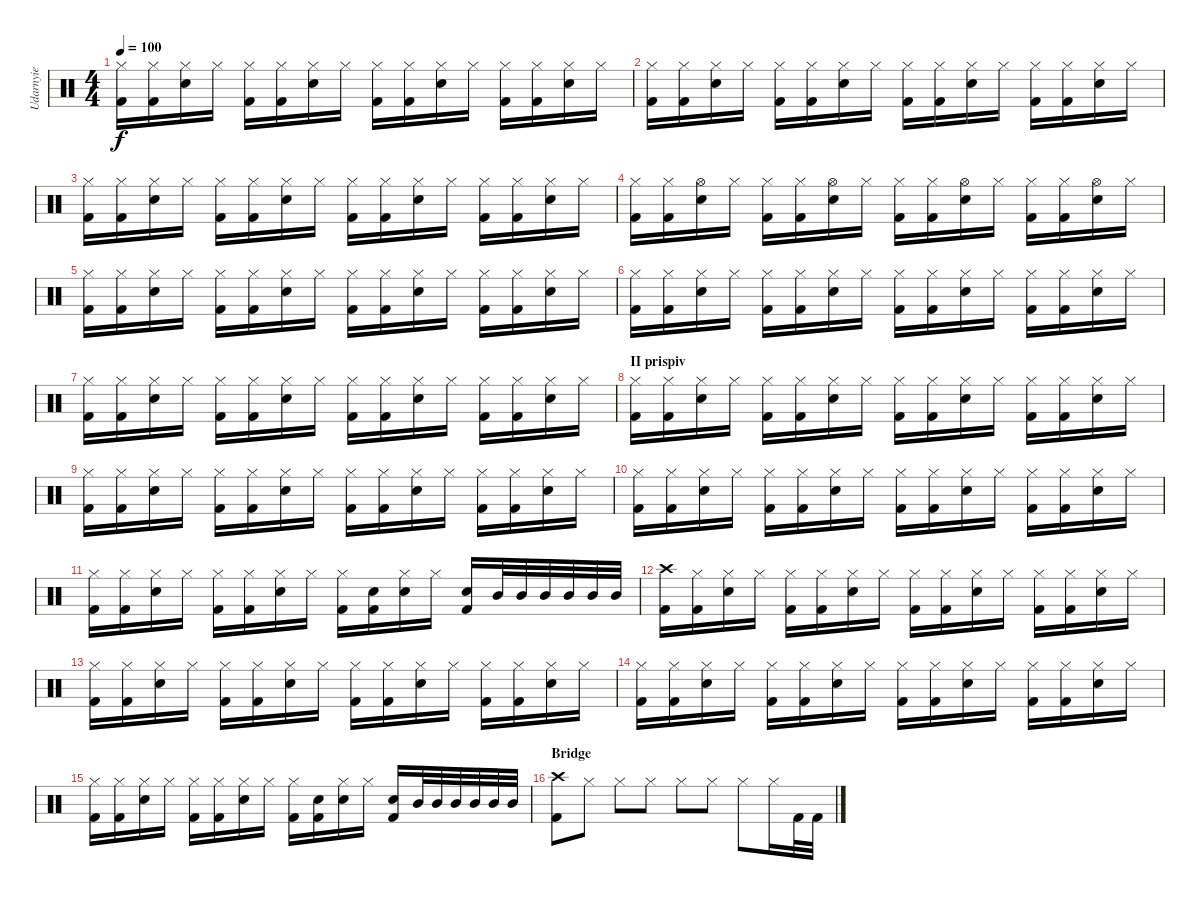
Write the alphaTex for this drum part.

\track ("Udarnyie" "Udarnyie") {instrument percussion}
\staff {score}
\articulation defaults
\ts (4 4)
\tempo 100
\clef neutral
\ks c
("Hi-Hat (closed)" "Kick (hit) 2").16{dy f} ("Hi-Hat (closed)" "Kick (hit) 2").16 ("Hi-Hat (closed)" "Snare (hit) 2").16 "Hi-Hat (closed)".16 ("Hi-Hat (closed)" "Kick (hit) 2").16 ("Hi-Hat (closed)" "Kick (hit) 2").16 ("Hi-Hat (closed)" "Snare (hit) 2").16 "Hi-Hat (closed)".16 ("Hi-Hat (closed)" "Kick (hit) 2").16 ("Hi-Hat (closed)" "Kick (hit) 2").16 ("Hi-Hat (closed)" "Snare (hit) 2").16 "Hi-Hat (closed)".16 ("Hi-Hat (closed)" "Kick (hit) 2").16 ("Hi-Hat (closed)" "Kick (hit) 2").16 ("Hi-Hat (closed)" "Snare (hit) 2").16 "Hi-Hat (closed)".16 |
("Hi-Hat (closed)" "Kick (hit) 2").16 ("Hi-Hat (closed)" "Kick (hit) 2").16 ("Hi-Hat (closed)" "Snare (hit) 2").16 "Hi-Hat (closed)".16 ("Hi-Hat (closed)" "Kick (hit) 2").16 ("Hi-Hat (closed)" "Kick (hit) 2").16 ("Hi-Hat (closed)" "Snare (hit) 2").16 "Hi-Hat (closed)".16 ("Hi-Hat (closed)" "Kick (hit) 2").16 ("Hi-Hat (closed)" "Kick (hit) 2").16 ("Hi-Hat (closed)" "Snare (hit) 2").16 "Hi-Hat (closed)".16 ("Hi-Hat (closed)" "Kick (hit) 2").16 ("Hi-Hat (closed)" "Kick (hit) 2").16 ("Hi-Hat (closed)" "Snare (hit) 2").16 "Hi-Hat (closed)".16 |
("Hi-Hat (closed)" "Kick (hit) 2").16 ("Hi-Hat (closed)" "Kick (hit) 2").16 ("Hi-Hat (closed)" "Snare (hit) 2").16 "Hi-Hat (closed)".16 ("Hi-Hat (closed)" "Kick (hit) 2").16 ("Hi-Hat (closed)" "Kick (hit) 2").16 ("Hi-Hat (closed)" "Snare (hit) 2").16 "Hi-Hat (closed)".16 ("Hi-Hat (closed)" "Kick (hit) 2").16 ("Hi-Hat (closed)" "Kick (hit) 2").16 ("Hi-Hat (closed)" "Snare (hit) 2").16 "Hi-Hat (closed)".16 ("Hi-Hat (closed)" "Kick (hit) 2").16 ("Hi-Hat (closed)" "Kick (hit) 2").16 ("Hi-Hat (closed)" "Snare (hit) 2").16 "Hi-Hat (closed)".16 |
("Hi-Hat (closed)" "Kick (hit) 2").16 ("Hi-Hat (closed)" "Kick (hit) 2").16 ("Hi-Hat (open)" "Snare (hit) 2").16 "Hi-Hat (closed)".16 ("Hi-Hat (closed)" "Kick (hit) 2").16 ("Hi-Hat (closed)" "Kick (hit) 2").16 ("Hi-Hat (open)" "Snare (hit) 2").16 "Hi-Hat (closed)".16 ("Hi-Hat (closed)" "Kick (hit) 2").16 ("Hi-Hat (closed)" "Kick (hit) 2").16 ("Hi-Hat (open)" "Snare (hit) 2").16 "Hi-Hat (closed)".16 ("Hi-Hat (closed)" "Kick (hit) 2").16 ("Hi-Hat (closed)" "Kick (hit) 2").16 ("Hi-Hat (open)" "Snare (hit) 2").16 "Hi-Hat (closed)".16 |
("Hi-Hat (closed)" "Kick (hit) 2").16 ("Hi-Hat (closed)" "Kick (hit) 2").16 ("Hi-Hat (closed)" "Snare (hit) 2").16 "Hi-Hat (closed)".16 ("Hi-Hat (closed)" "Kick (hit) 2").16 ("Hi-Hat (closed)" "Kick (hit) 2").16 ("Hi-Hat (closed)" "Snare (hit) 2").16 "Hi-Hat (closed)".16 ("Hi-Hat (closed)" "Kick (hit) 2").16 ("Hi-Hat (closed)" "Kick (hit) 2").16 ("Hi-Hat (closed)" "Snare (hit) 2").16 "Hi-Hat (closed)".16 ("Hi-Hat (closed)" "Kick (hit) 2").16 ("Hi-Hat (closed)" "Kick (hit) 2").16 ("Hi-Hat (closed)" "Snare (hit) 2").16 "Hi-Hat (closed)".16 |
("Hi-Hat (closed)" "Kick (hit) 2").16 ("Hi-Hat (closed)" "Kick (hit) 2").16 ("Hi-Hat (closed)" "Snare (hit) 2").16 "Hi-Hat (closed)".16 ("Hi-Hat (closed)" "Kick (hit) 2").16 ("Hi-Hat (closed)" "Kick (hit) 2").16 ("Hi-Hat (closed)" "Snare (hit) 2").16 "Hi-Hat (closed)".16 ("Hi-Hat (closed)" "Kick (hit) 2").16 ("Hi-Hat (closed)" "Kick (hit) 2").16 ("Hi-Hat (closed)" "Snare (hit) 2").16 "Hi-Hat (closed)".16 ("Hi-Hat (closed)" "Kick (hit) 2").16 ("Hi-Hat (closed)" "Kick (hit) 2").16 ("Hi-Hat (closed)" "Snare (hit) 2").16 "Hi-Hat (closed)".16 |
("Hi-Hat (closed)" "Kick (hit) 2").16 ("Hi-Hat (closed)" "Kick (hit) 2").16 ("Hi-Hat (closed)" "Snare (hit) 2").16 "Hi-Hat (closed)".16 ("Hi-Hat (closed)" "Kick (hit) 2").16 ("Hi-Hat (closed)" "Kick (hit) 2").16 ("Hi-Hat (closed)" "Snare (hit) 2").16 "Hi-Hat (closed)".16 ("Hi-Hat (closed)" "Kick (hit) 2").16 ("Hi-Hat (closed)" "Kick (hit) 2").16 ("Hi-Hat (closed)" "Snare (hit) 2").16 "Hi-Hat (closed)".16 ("Hi-Hat (closed)" "Kick (hit) 2").16 ("Hi-Hat (closed)" "Kick (hit) 2").16 ("Hi-Hat (closed)" "Snare (hit) 2").16 "Hi-Hat (closed)".16 |
\section ("" "II prispiv")
("Hi-Hat (closed)" "Kick (hit) 2").16 ("Hi-Hat (closed)" "Kick (hit) 2").16 ("Hi-Hat (closed)" "Snare (hit) 2").16 "Hi-Hat (closed)".16 ("Hi-Hat (closed)" "Kick (hit) 2").16 ("Hi-Hat (closed)" "Kick (hit) 2").16 ("Hi-Hat (closed)" "Snare (hit) 2").16 "Hi-Hat (closed)".16 ("Hi-Hat (closed)" "Kick (hit) 2").16 ("Hi-Hat (closed)" "Kick (hit) 2").16 ("Hi-Hat (closed)" "Snare (hit) 2").16 "Hi-Hat (closed)".16 ("Hi-Hat (closed)" "Kick (hit) 2").16 ("Hi-Hat (closed)" "Kick (hit) 2").16 ("Hi-Hat (closed)" "Snare (hit) 2").16 "Hi-Hat (closed)".16 |
("Hi-Hat (closed)" "Kick (hit) 2").16 ("Hi-Hat (closed)" "Kick (hit) 2").16 ("Hi-Hat (closed)" "Snare (hit) 2").16 "Hi-Hat (closed)".16 ("Hi-Hat (closed)" "Kick (hit) 2").16 ("Hi-Hat (closed)" "Kick (hit) 2").16 ("Hi-Hat (closed)" "Snare (hit) 2").16 "Hi-Hat (closed)".16 ("Hi-Hat (closed)" "Kick (hit) 2").16 ("Hi-Hat (closed)" "Kick (hit) 2").16 ("Hi-Hat (closed)" "Snare (hit) 2").16 "Hi-Hat (closed)".16 ("Hi-Hat (closed)" "Kick (hit) 2").16 ("Hi-Hat (closed)" "Kick (hit) 2").16 ("Hi-Hat (closed)" "Snare (hit) 2").16 "Hi-Hat (closed)".16 |
("Hi-Hat (closed)" "Kick (hit) 2").16 ("Hi-Hat (closed)" "Kick (hit) 2").16 ("Hi-Hat (closed)" "Snare (hit) 2").16 "Hi-Hat (closed)".16 ("Hi-Hat (closed)" "Kick (hit) 2").16 ("Hi-Hat (closed)" "Kick (hit) 2").16 ("Hi-Hat (closed)" "Snare (hit) 2").16 "Hi-Hat (closed)".16 ("Hi-Hat (closed)" "Kick (hit) 2").16 ("Hi-Hat (closed)" "Kick (hit) 2").16 ("Hi-Hat (closed)" "Snare (hit) 2").16 "Hi-Hat (closed)".16 ("Hi-Hat (closed)" "Kick (hit) 2").16 ("Hi-Hat (closed)" "Kick (hit) 2").16 ("Hi-Hat (closed)" "Snare (hit) 2").16 "Hi-Hat (closed)".16 |
("Hi-Hat (closed)" "Kick (hit) 2").16 ("Hi-Hat (closed)" "Kick (hit) 2").16 ("Hi-Hat (closed)" "Snare (hit) 2").16 "Hi-Hat (closed)".16 ("Hi-Hat (closed)" "Kick (hit) 2").16 ("Hi-Hat (closed)" "Kick (hit) 2").16 ("Hi-Hat (closed)" "Snare (hit) 2").16 "Hi-Hat (closed)".16 ("Hi-Hat (closed)" "Kick (hit) 2").16 ("Snare (hit) 2" "Kick (hit) 2").16 ("Hi-Hat (closed)" "Snare (hit) 2").16 "Hi-Hat (closed)".16 ("Electric Snare (hit)" "Kick (hit) 2").16 "Mid Tom (hit)".32 "Mid Tom (hit)".32 "Mid Tom (hit)".32 "Mid Tom (hit)".32 "Mid Tom (hit)".32 "Mid Tom (hit)".32 |
("Crash high (hit)" "Kick (hit) 2").16 ("Hi-Hat (closed)" "Kick (hit) 2").16 ("Hi-Hat (closed)" "Snare (hit) 2").16 "Hi-Hat (closed)".16 ("Hi-Hat (closed)" "Kick (hit) 2").16 ("Hi-Hat (closed)" "Kick (hit) 2").16 ("Hi-Hat (closed)" "Snare (hit) 2").16 "Hi-Hat (closed)".16 ("Hi-Hat (closed)" "Kick (hit) 2").16 ("Hi-Hat (closed)" "Kick (hit) 2").16 ("Hi-Hat (closed)" "Snare (hit) 2").16 "Hi-Hat (closed)".16 ("Hi-Hat (closed)" "Kick (hit) 2").16 ("Hi-Hat (closed)" "Kick (hit) 2").16 ("Hi-Hat (closed)" "Snare (hit) 2").16 "Hi-Hat (closed)".16 |
("Hi-Hat (closed)" "Kick (hit) 2").16 ("Hi-Hat (closed)" "Kick (hit) 2").16 ("Hi-Hat (closed)" "Snare (hit) 2").16 "Hi-Hat (closed)".16 ("Hi-Hat (closed)" "Kick (hit) 2").16 ("Hi-Hat (closed)" "Kick (hit) 2").16 ("Hi-Hat (closed)" "Snare (hit) 2").16 "Hi-Hat (closed)".16 ("Hi-Hat (closed)" "Kick (hit) 2").16 ("Hi-Hat (closed)" "Kick (hit) 2").16 ("Hi-Hat (closed)" "Snare (hit) 2").16 "Hi-Hat (closed)".16 ("Hi-Hat (closed)" "Kick (hit) 2").16 ("Hi-Hat (closed)" "Kick (hit) 2").16 ("Hi-Hat (closed)" "Snare (hit) 2").16 "Hi-Hat (closed)".16 |
("Hi-Hat (closed)" "Kick (hit) 2").16 ("Hi-Hat (closed)" "Kick (hit) 2").16 ("Hi-Hat (closed)" "Snare (hit) 2").16 "Hi-Hat (closed)".16 ("Hi-Hat (closed)" "Kick (hit) 2").16 ("Hi-Hat (closed)" "Kick (hit) 2").16 ("Hi-Hat (closed)" "Snare (hit) 2").16 "Hi-Hat (closed)".16 ("Hi-Hat (closed)" "Kick (hit) 2").16 ("Hi-Hat (closed)" "Kick (hit) 2").16 ("Hi-Hat (closed)" "Snare (hit) 2").16 "Hi-Hat (closed)".16 ("Hi-Hat (closed)" "Kick (hit) 2").16 ("Hi-Hat (closed)" "Kick (hit) 2").16 ("Hi-Hat (closed)" "Snare (hit) 2").16 "Hi-Hat (closed)".16 |
("Hi-Hat (closed)" "Kick (hit) 2").16 ("Hi-Hat (closed)" "Kick (hit) 2").16 ("Hi-Hat (closed)" "Snare (hit) 2").16 "Hi-Hat (closed)".16 ("Hi-Hat (closed)" "Kick (hit) 2").16 ("Hi-Hat (closed)" "Kick (hit) 2").16 ("Hi-Hat (closed)" "Snare (hit) 2").16 "Hi-Hat (closed)".16 ("Hi-Hat (closed)" "Kick (hit) 2").16 ("Snare (hit) 2" "Kick (hit) 2").16 ("Hi-Hat (closed)" "Snare (hit) 2").16 "Hi-Hat (closed)".16 ("Electric Snare (hit)" "Kick (hit) 2").16 "Mid Tom (hit)".32 "Mid Tom (hit)".32 "Mid Tom (hit)".32 "Mid Tom (hit)".32 "Mid Tom (hit)".32 "Mid Tom (hit)".32 |
\section ("" "Bridge")
("Crash high (hit)" "Kick (hit) 2").8 "Hi-Hat (closed)".8 "Hi-Hat (closed)".8 "Hi-Hat (closed)".8 "Hi-Hat (closed)".8 "Hi-Hat (closed)".8 "Hi-Hat (closed)".8 "Hi-Hat (closed)".16 "Kick (hit) 2".32 "Kick (hit) 2".32
